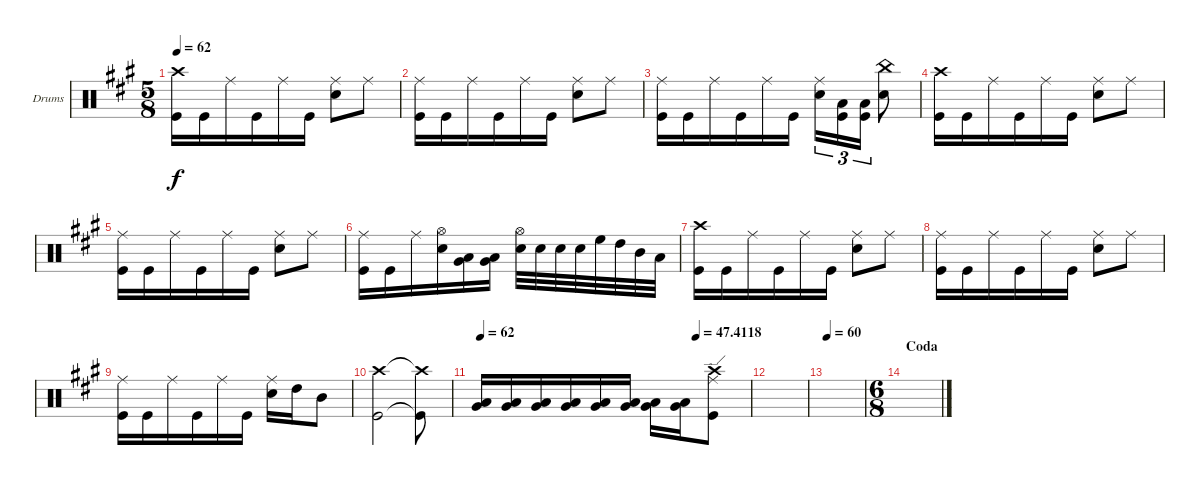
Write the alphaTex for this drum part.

\defaultSystemsLayout 4
\bracketExtendMode groupsimilarinstruments
\firstSystemTrackNameOrientation horizontal
\otherSystemsTrackNameOrientation horizontal
\track ("Drums" "Drums") {instrument percussion}
\staff {score}
\articulation defaults
\ts (5 8)
\tempo 62
\clef neutral
\ks f#minor
("Kick (hit)" "Crash high (hit)").16{dy f} "Kick (hit)".16 "Ride (middle)".16 "Kick (hit)".16 "Ride (middle)".16 "Kick (hit)".16 ("Snare (hit) 2" "Ride (middle)").8 "Ride (middle)".8 |
("Kick (hit)" "Ride (middle)").16 "Kick (hit)".16 "Ride (middle)".16 "Kick (hit)".16 "Ride (middle)".16 "Kick (hit)".16 ("Snare (hit) 2" "Ride (middle)").8 "Ride (middle)".8 |
("Kick (hit)" "Ride (middle)").16 "Kick (hit)".16 "Ride (middle)".16 "Kick (hit)".16 "Ride (middle)".16 "Kick (hit)".16 ("Snare (hit) 2" "Ride (middle)").16{tu (3 2)} ("Low Tom (hit)" "Kick (hit)").16{tu (3 2)} ("Kick (hit)" "Low Tom (hit)").16{tu (3 2)} ("Snare (hit) 2" "China (hit)").8 |
("Kick (hit)" "Crash high (hit)").16 "Kick (hit)".16 "Ride (middle)".16 "Kick (hit)".16 "Ride (middle)".16 "Kick (hit)".16 ("Snare (hit) 2" "Ride (middle)").8 "Ride (middle)".8 |
("Kick (hit)" "Ride (middle)").16 "Kick (hit)".16 "Ride (middle)".16 "Kick (hit)".16 "Ride (middle)".16 "Kick (hit)".16 ("Snare (hit) 2" "Ride (middle)").8 "Ride (middle)".8 |
("Kick (hit)" "Ride (middle)").16 "Kick (hit)".16 "Ride (middle)".16 ("Snare (hit) 2" "Hi-Hat (open)").16 ("Very Low Tom (hit)" "Low Tom (hit)").16 ("Very Low Tom (hit)" "Low Tom (hit)").16 ("Snare (hit) 2" "Hi-Hat (open)").32 "Snare (hit) 2".32 "Snare (hit) 2".32 "Snare (hit) 2".32 "High Floor Tom (hit)".32 "High Tom (hit)".32 "Mid Tom (hit)".32 "Low Tom (hit)".32 |
("Kick (hit)" "Crash high (hit)").16 "Kick (hit)".16 "Ride (middle)".16 "Kick (hit)".16 "Ride (middle)".16 "Kick (hit)".16 ("Snare (hit) 2" "Ride (middle)").8 "Ride (middle)".8 |
("Kick (hit)" "Ride (middle)").16 "Kick (hit)".16 "Ride (middle)".16 "Kick (hit)".16 "Ride (middle)".16 "Kick (hit)".16 ("Snare (hit) 2" "Ride (middle)").8 "Ride (middle)".8 |
("Kick (hit)" "Ride (middle)").16 "Kick (hit)".16 "Ride (middle)".16 "Kick (hit)".16 "Ride (middle)".16 "Kick (hit)".16 ("Snare (hit) 2" "Ride (middle)").16 "High Tom (hit)".16 "Mid Tom (hit)".8 |
("Kick (hit)" "Crash high (hit)").2 ("Kick (hit)"{t} "Crash high (hit)"{t}).8 |
\tempo 62
\tempo (47.4118 0.8)
("Very Low Tom (hit)" "Low Tom (hit)").16 ("Very Low Tom (hit)" "Low Tom (hit)").16 ("Very Low Tom (hit)" "Low Tom (hit)").16 ("Very Low Tom (hit)" "Low Tom (hit)").16 ("Very Low Tom (hit)" "Low Tom (hit)").16 ("Very Low Tom (hit)" "Low Tom (hit)").16 ("Very Low Tom (hit)" "Low Tom (hit)").16 ("Very Low Tom (hit)" "Low Tom (hit)").16 ("Kick (hit)" "Crash high (hit)" "Ride (edge)").8 |
|
\tempo 60
|
\ts (6 8)
\section ("" "Coda")
